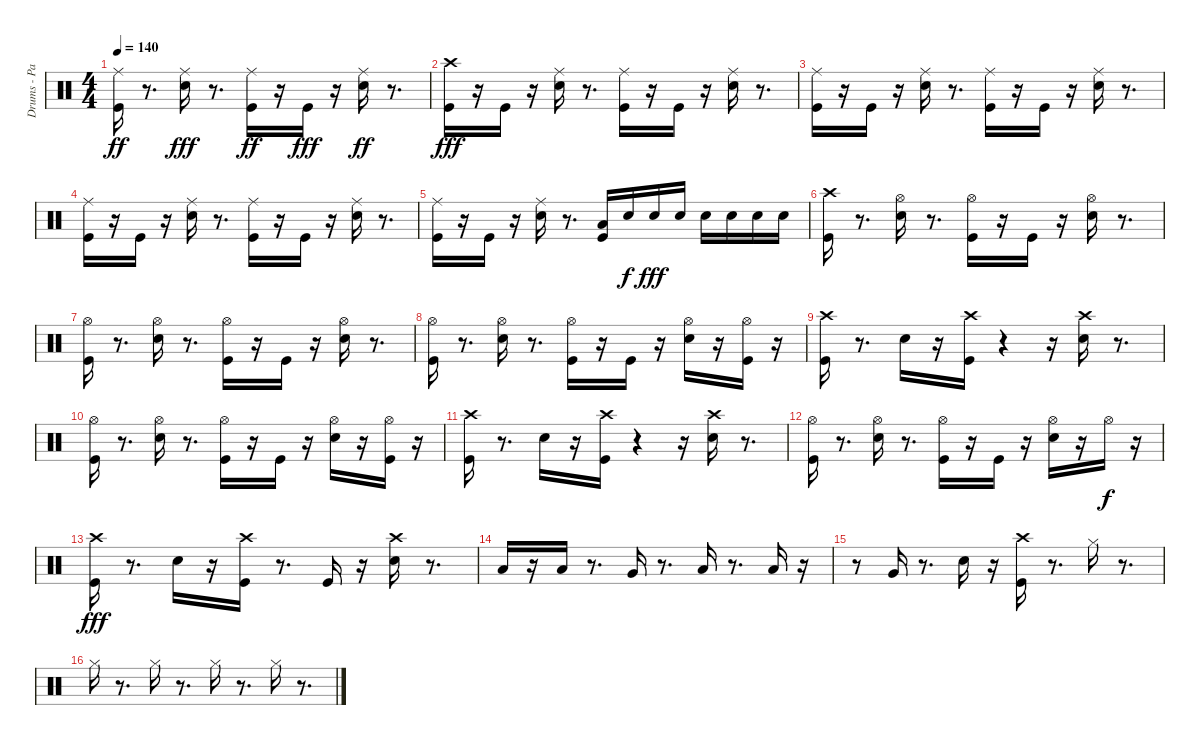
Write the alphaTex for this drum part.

\track ("Drums - Paice" "Drums - Pa") {instrument percussion}
\staff {score}
\articulation defaults
\ts (4 4)
\tempo 140
\clef neutral
\ks c
("Kick (hit)" "Ride (middle)").16{dy ff} r.8{d} ("Ride (middle)" "Snare (hit) 2").16{dy fff} r.8{d} ("Kick (hit)" "Ride (middle)").16{dy ff} r.16 "Kick (hit)".16{dy fff} r.16 ("Snare (hit) 2" "Ride (middle)").16{dy ff} r.8{d} |
("Kick (hit)" "Crash high (hit)").16{dy fff} r.16 "Kick (hit)".16 r.16 ("Snare (hit) 2" "Ride (middle)").16 r.8{d} ("Kick (hit)" "Ride (middle)").16 r.16 "Kick (hit)".16 r.16 ("Snare (hit) 2" "Ride (middle)").16 r.8{d} |
("Ride (middle)" "Kick (hit)").16 r.16 "Kick (hit)".16 r.16 ("Snare (hit) 2" "Ride (middle)").16 r.8{d} ("Ride (middle)" "Kick (hit)").16 r.16 "Kick (hit)".16 r.16 ("Ride (middle)" "Snare (hit) 2").16 r.8{d} |
("Kick (hit)" "Ride (middle)").16 r.16 "Kick (hit)".16 r.16 ("Snare (hit) 2" "Ride (middle)").16 r.8{d} ("Ride (middle)" "Kick (hit)").16 r.16 "Kick (hit)".16 r.16 ("Snare (hit) 2" "Ride (middle)").16 r.8{d} |
("Kick (hit)" "Ride (middle)").16 r.16 "Kick (hit)".16 r.16 ("Snare (hit) 2" "Ride (middle)").16 r.8{d} ("Kick (hit)" "Low Tom (hit)").16 "Snare (hit) 2".16{dy f} "Snare (hit) 2".16{dy fff} "Snare (hit) 2".16 "Snare (hit) 2".16 "Snare (hit) 2".16 "Snare (hit) 2".16 "Snare (hit) 2".16 |
("Crash high (hit)" "Kick (hit)").16 r.8{d} ("Hi-Hat (open)" "Snare (hit) 2").16 r.8{d} ("Hi-Hat (open)" "Kick (hit)").16 r.16 "Kick (hit)".16 r.16 ("Snare (hit) 2" "Hi-Hat (open)").16 r.8{d} |
("Hi-Hat (open)" "Kick (hit)").16 r.8{d} ("Hi-Hat (open)" "Snare (hit) 2").16 r.8{d} ("Hi-Hat (open)" "Kick (hit)").16 r.16 "Kick (hit)".16 r.16 ("Snare (hit) 2" "Hi-Hat (open)").16 r.8{d} |
("Hi-Hat (open)" "Kick (hit)").16 r.8{d} ("Hi-Hat (open)" "Snare (hit) 2").16 r.8{d} ("Hi-Hat (open)" "Kick (hit)").16 r.16 "Kick (hit)".16 r.16 ("Snare (hit) 2" "Hi-Hat (open)").16 r.16 ("Hi-Hat (open)" "Kick (hit)").16 r.16 |
("Kick (hit)" "Crash high (hit)").16 r.8{d} "Snare (hit) 2".16 r.16 ("Crash high (hit)" "Kick (hit)").16 r.4 r.16 ("Snare (hit) 2" "Crash high (hit)").16 r.8{d} |
("Kick (hit)" "Hi-Hat (open)").16 r.8{d} ("Hi-Hat (open)" "Snare (hit) 2").16 r.8{d} ("Hi-Hat (open)" "Kick (hit)").16 r.16 "Kick (hit)".16 r.16 ("Hi-Hat (open)" "Snare (hit) 2").16 r.16 ("Hi-Hat (open)" "Kick (hit)").16 r.16 |
("Kick (hit)" "Crash high (hit)").16 r.8{d} "Snare (hit) 2".16 r.16 ("Crash high (hit)" "Kick (hit)").16 r.4 r.16 ("Crash high (hit)" "Snare (hit) 2").16 r.8{d} |
("Kick (hit)" "Hi-Hat (open)").16 r.8{d} ("Snare (hit) 2" "Hi-Hat (open)").16 r.8{d} ("Kick (hit)" "Hi-Hat (open)").16 r.16 "Kick (hit)".16 r.16 ("Hi-Hat (open)" "Snare (hit) 2").16 r.16 "Hi-Hat (open)".16{dy f} r.16 |
("Kick (hit)" "Crash high (hit)").16{dy fff} r.8{d} "Snare (hit) 2".16 r.16 ("Kick (hit)" "Crash high (hit)").16 r.8{d} "Kick (hit)".16 r.16 ("Snare (hit) 2" "Crash high (hit)").16 r.8{d} |
"Low Tom (hit)".16 r.16 "Low Tom (hit)".16 r.8{d} "Very Low Tom (hit)".16 r.8{d} "Low Tom (hit)".16 r.8{d} "Low Tom (hit)".16 r.16 |
r.8 "Very Low Tom (hit)".16 r.8{d} "Snare (hit) 2".16 r.16 ("Crash high (hit)" "Kick (hit)").16 r.8{d} "Hi-Hat (closed)".16 r.8{d} |
"Hi-Hat (closed)".16 r.8{d} "Hi-Hat (closed)".16 r.8{d} "Hi-Hat (closed)".16 r.8{d} "Hi-Hat (closed)".16 r.8{d}
